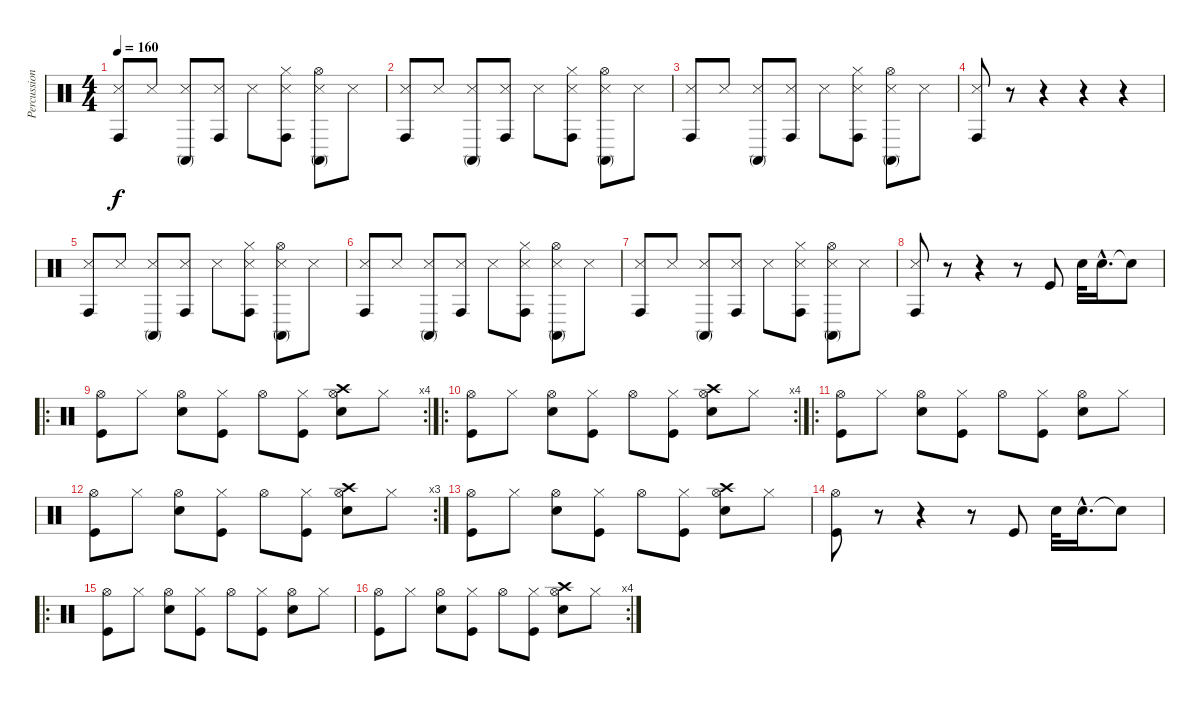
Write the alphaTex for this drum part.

\track ("Percussions" "Percussion") {instrument percussion}
\staff {score}
\articulation defaults
\ts (4 4)
\tempo 160
\clef neutral
\ks c
("Snare (side stick) 3" "Conga high (hit)").8{dy f} "Snare (side stick) 3".8 ("Snare (side stick) 3" "Conga high (mute)").8 ("Snare (side stick) 3" "Conga high (hit)").8 "Snare (side stick) 3".8 ("Snare (side stick) 3" "Conga high (hit)" "Hi-Hat (closed)").8 ("Snare (side stick) 3" "Conga high (mute)" "Hi-Hat (open)").8 "Snare (side stick) 3".8 |
("Snare (side stick) 3" "Conga high (hit)").8 "Snare (side stick) 3".8 ("Snare (side stick) 3" "Conga high (mute)").8 ("Snare (side stick) 3" "Conga high (hit)").8 "Snare (side stick) 3".8 ("Snare (side stick) 3" "Conga high (hit)" "Hi-Hat (closed)").8 ("Snare (side stick) 3" "Conga high (mute)" "Hi-Hat (open)").8 "Snare (side stick) 3".8 |
("Snare (side stick) 3" "Conga high (hit)").8 "Snare (side stick) 3".8 ("Snare (side stick) 3" "Conga high (mute)").8 ("Snare (side stick) 3" "Conga high (hit)").8 "Snare (side stick) 3".8 ("Snare (side stick) 3" "Conga high (hit)" "Hi-Hat (closed)").8 ("Snare (side stick) 3" "Conga high (mute)" "Hi-Hat (open)").8 "Snare (side stick) 3".8 |
("Snare (side stick) 3" "Conga high (hit)").8 r.8 r.4 r.4 r.4 |
("Snare (side stick) 3" "Conga high (hit)").8 "Snare (side stick) 3".8 ("Snare (side stick) 3" "Conga high (mute)").8 ("Snare (side stick) 3" "Conga high (hit)").8 "Snare (side stick) 3".8 ("Snare (side stick) 3" "Conga high (hit)" "Hi-Hat (closed)").8 ("Snare (side stick) 3" "Conga high (mute)" "Hi-Hat (open)").8 "Snare (side stick) 3".8 |
("Snare (side stick) 3" "Conga high (hit)").8 "Snare (side stick) 3".8 ("Snare (side stick) 3" "Conga high (mute)").8 ("Snare (side stick) 3" "Conga high (hit)").8 "Snare (side stick) 3".8 ("Snare (side stick) 3" "Conga high (hit)" "Hi-Hat (closed)").8 ("Snare (side stick) 3" "Conga high (mute)" "Hi-Hat (open)").8 "Snare (side stick) 3".8 |
("Snare (side stick) 3" "Conga high (hit)").8 "Snare (side stick) 3".8 ("Snare (side stick) 3" "Conga high (mute)").8 ("Snare (side stick) 3" "Conga high (hit)").8 "Snare (side stick) 3".8 ("Snare (side stick) 3" "Conga high (hit)" "Hi-Hat (closed)").8 ("Snare (side stick) 3" "Conga high (mute)" "Hi-Hat (open)").8 "Snare (side stick) 3".8 |
("Snare (side stick) 3" "Conga high (hit)").8 r.8 r.4 r.8 "Kick (hit)".8 "Snare (hit) 2".32 "Snare (hit) 2"{hac}.16{d} "Snare (hit)"{t}.8 |
\ro
\rc 4
("Hi-Hat (open)" "Kick (hit)").8 "Hi-Hat (closed)".8 ("Hi-Hat (open)" "Snare (hit) 2").8 ("Hi-Hat (closed)" "Kick (hit)").8 "Hi-Hat (open)".8 ("Hi-Hat (closed)" "Kick (hit)").8 ("Hi-Hat (open)" "Snare (hit) 2" "Crash high (hit)").8 "Hi-Hat (closed)".8 |
\ro
\rc 4
("Hi-Hat (open)" "Kick (hit)").8 "Hi-Hat (closed)".8 ("Hi-Hat (open)" "Snare (hit) 2").8 ("Hi-Hat (closed)" "Kick (hit)").8 "Hi-Hat (open)".8 ("Hi-Hat (closed)" "Kick (hit)").8 ("Hi-Hat (open)" "Snare (hit) 2" "Crash high (hit)").8 "Hi-Hat (closed)".8 |
\ro
("Hi-Hat (open)" "Kick (hit)").8 "Hi-Hat (closed)".8 ("Hi-Hat (open)" "Snare (hit) 2").8 ("Hi-Hat (closed)" "Kick (hit)").8 "Hi-Hat (open)".8 ("Hi-Hat (closed)" "Kick (hit)").8 ("Hi-Hat (open)" "Snare (hit) 2").8 "Hi-Hat (closed)".8 |
\rc 3
("Hi-Hat (open)" "Kick (hit)").8 "Hi-Hat (closed)".8 ("Hi-Hat (open)" "Snare (hit) 2").8 ("Hi-Hat (closed)" "Kick (hit)").8 "Hi-Hat (open)".8 ("Hi-Hat (closed)" "Kick (hit)").8 ("Hi-Hat (open)" "Snare (hit) 2" "Crash high (hit)").8 "Hi-Hat (closed)".8 |
("Hi-Hat (open)" "Kick (hit)").8 "Hi-Hat (closed)".8 ("Hi-Hat (open)" "Snare (hit) 2").8 ("Hi-Hat (closed)" "Kick (hit)").8 "Hi-Hat (open)".8 ("Hi-Hat (closed)" "Kick (hit)").8 ("Hi-Hat (open)" "Snare (hit) 2" "Crash high (hit)").8 "Hi-Hat (closed)".8 |
("Hi-Hat (open)" "Kick (hit)").8 r.8 r.4 r.8 "Kick (hit)".8 "Snare (hit) 2".32 "Snare (hit) 2"{hac}.16{d} "Snare (hit)"{t}.8 |
\ro
("Hi-Hat (open)" "Kick (hit)").8 "Hi-Hat (closed)".8 ("Hi-Hat (open)" "Snare (hit) 2").8 ("Hi-Hat (closed)" "Kick (hit)").8 "Hi-Hat (open)".8 ("Hi-Hat (closed)" "Kick (hit)").8 ("Hi-Hat (open)" "Snare (hit) 2").8 "Hi-Hat (closed)".8 |
\rc 4
("Hi-Hat (open)" "Kick (hit)").8 "Hi-Hat (closed)".8 ("Hi-Hat (open)" "Snare (hit) 2").8 ("Hi-Hat (closed)" "Kick (hit)").8 "Hi-Hat (open)".8 ("Hi-Hat (closed)" "Kick (hit)").8 ("Hi-Hat (open)" "Snare (hit) 2" "Crash high (hit)").8 "Hi-Hat (closed)".8
